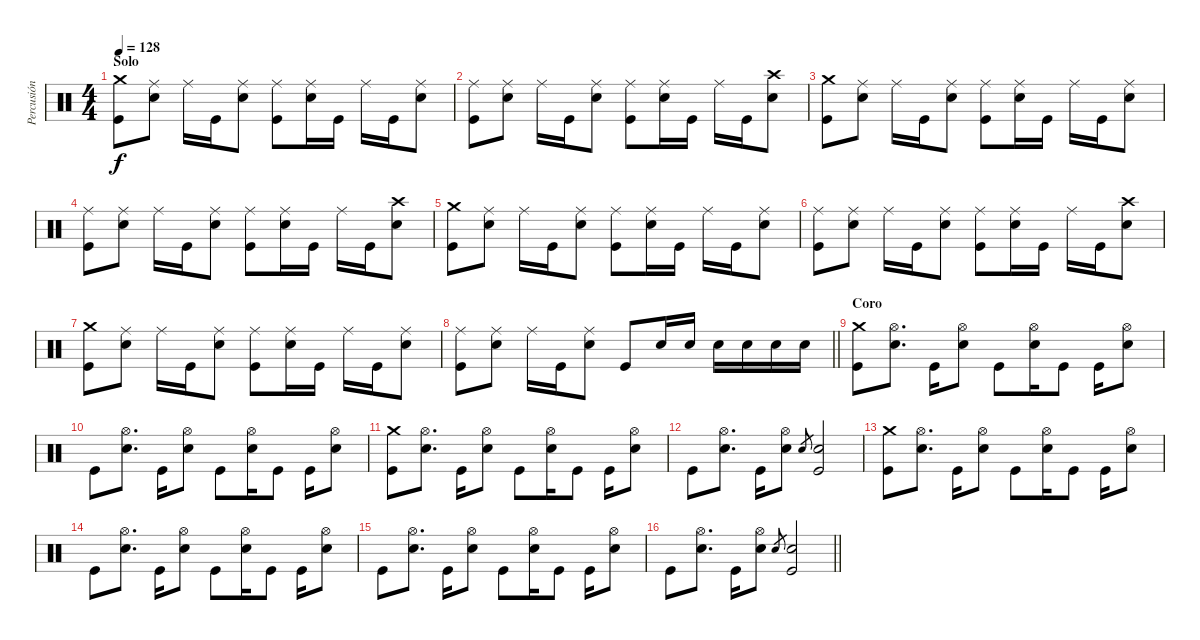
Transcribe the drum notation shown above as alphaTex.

\track ("Percusión" "Percusión") {instrument percussion}
\staff {score}
\articulation defaults
\ts (4 4)
\section ("" "Solo")
\tempo 128
\clef neutral
\ks c
("Crash medium (hit)" "Kick (hit)").8{dy f} ("Ride (middle)" "Snare (hit) 2").8 "Ride (middle)".16 "Kick (hit)".16 ("Ride (middle)" "Snare (hit) 2").8 ("Ride (middle)" "Kick (hit)").8 ("Ride (middle)" "Snare (hit) 2").16 "Kick (hit)".16 "Ride (middle)".16 "Kick (hit)".16 ("Ride (middle)" "Snare (hit) 2").8 |
("Ride (middle)" "Kick (hit)").8 ("Ride (middle)" "Snare (hit) 2").8 "Ride (middle)".16 "Kick (hit)".16 ("Ride (middle)" "Snare (hit) 2").8 ("Ride (middle)" "Kick (hit)").8 ("Ride (middle)" "Snare (hit) 2").16 "Kick (hit)".16 "Ride (middle)".16 "Kick (hit)".16 ("Crash high (hit)" "Snare (hit) 2").8 |
("Crash medium (hit)" "Kick (hit)").8 ("Ride (middle)" "Snare (hit) 2").8 "Ride (middle)".16 "Kick (hit)".16 ("Ride (middle)" "Snare (hit) 2").8 ("Ride (middle)" "Kick (hit)").8 ("Ride (middle)" "Snare (hit) 2").16 "Kick (hit)".16 "Ride (middle)".16 "Kick (hit)".16 ("Ride (middle)" "Snare (hit) 2").8 |
("Ride (middle)" "Kick (hit)").8 ("Ride (middle)" "Snare (hit) 2").8 "Ride (middle)".16 "Kick (hit)".16 ("Ride (middle)" "Snare (hit) 2").8 ("Ride (middle)" "Kick (hit)").8 ("Ride (middle)" "Snare (hit) 2").16 "Kick (hit)".16 "Ride (middle)".16 "Kick (hit)".16 ("Crash high (hit)" "Snare (hit) 2").8 |
("Crash medium (hit)" "Kick (hit)").8 ("Ride (middle)" "Snare (hit) 2").8 "Ride (middle)".16 "Kick (hit)".16 ("Ride (middle)" "Snare (hit) 2").8 ("Ride (middle)" "Kick (hit)").8 ("Ride (middle)" "Snare (hit) 2").16 "Kick (hit)".16 "Ride (middle)".16 "Kick (hit)".16 ("Ride (middle)" "Snare (hit) 2").8 |
("Ride (middle)" "Kick (hit)").8 ("Ride (middle)" "Snare (hit) 2").8 "Ride (middle)".16 "Kick (hit)".16 ("Ride (middle)" "Snare (hit) 2").8 ("Ride (middle)" "Kick (hit)").8 ("Ride (middle)" "Snare (hit) 2").16 "Kick (hit)".16 "Ride (middle)".16 "Kick (hit)".16 ("Crash high (hit)" "Snare (hit) 2").8 |
("Crash medium (hit)" "Kick (hit)").8 ("Ride (middle)" "Snare (hit) 2").8 "Ride (middle)".16 "Kick (hit)".16 ("Ride (middle)" "Snare (hit) 2").8 ("Ride (middle)" "Kick (hit)").8 ("Ride (middle)" "Snare (hit) 2").16 "Kick (hit)".16 "Ride (middle)".16 "Kick (hit)".16 ("Ride (middle)" "Snare (hit) 2").8 |
\barLineRight lightlight
("Ride (middle)" "Kick (hit)").8 ("Ride (middle)" "Snare (hit) 2").8 "Ride (middle)".16 "Kick (hit)".16 ("Ride (middle)" "Snare (hit) 2").8 "Kick (hit)".8 "Snare (hit) 2".16 "Snare (hit) 2".16 "Snare (hit) 2".16 "Snare (hit) 2".16 "Snare (hit) 2".16 "Snare (hit) 2".16 |
\section ("" "Coro")
("Crash medium (hit)" "Kick (hit)").8 ("Hi-Hat (open)" "Snare (hit) 2").8{d} "Kick (hit)".16 ("Hi-Hat (open)" "Snare (hit) 2").8 "Kick (hit)".8 ("Hi-Hat (open)" "Snare (hit) 2").16 "Kick (hit)".8 "Kick (hit)".16 ("Hi-Hat (open)" "Snare (hit) 2").8 |
"Kick (hit)".8 ("Hi-Hat (open)" "Snare (hit) 2").8{d} "Kick (hit)".16 ("Hi-Hat (open)" "Snare (hit) 2").8 "Kick (hit)".8 ("Hi-Hat (open)" "Snare (hit) 2").16 "Kick (hit)".8 "Kick (hit)".16 ("Hi-Hat (open)" "Snare (hit) 2").8 |
("Crash medium (hit)" "Kick (hit)").8 ("Hi-Hat (open)" "Snare (hit) 2").8{d} "Kick (hit)".16 ("Hi-Hat (open)" "Snare (hit) 2").8 "Kick (hit)".8 ("Hi-Hat (open)" "Snare (hit) 2").16 "Kick (hit)".8 "Kick (hit)".16 ("Hi-Hat (open)" "Snare (hit) 2").8 |
"Kick (hit)".8 ("Hi-Hat (open)" "Snare (hit) 2").8{d} "Kick (hit)".16 ("Hi-Hat (open)" "Snare (hit) 2").8 "Snare (hit) 2".8{gr} ("Snare (hit) 2" "Kick (hit)").2 |
("Crash medium (hit)" "Kick (hit)").8 ("Hi-Hat (open)" "Snare (hit) 2").8{d} "Kick (hit)".16 ("Hi-Hat (open)" "Snare (hit) 2").8 "Kick (hit)".8 ("Hi-Hat (open)" "Snare (hit) 2").16 "Kick (hit)".8 "Kick (hit)".16 ("Hi-Hat (open)" "Snare (hit) 2").8 |
"Kick (hit)".8 ("Hi-Hat (open)" "Snare (hit) 2").8{d} "Kick (hit)".16 ("Hi-Hat (open)" "Snare (hit) 2").8 "Kick (hit)".8 ("Hi-Hat (open)" "Snare (hit) 2").16 "Kick (hit)".8 "Kick (hit)".16 ("Hi-Hat (open)" "Snare (hit) 2").8 |
"Kick (hit)".8 ("Hi-Hat (open)" "Snare (hit) 2").8{d} "Kick (hit)".16 ("Hi-Hat (open)" "Snare (hit) 2").8 "Kick (hit)".8 ("Hi-Hat (open)" "Snare (hit) 2").16 "Kick (hit)".8 "Kick (hit)".16 ("Hi-Hat (open)" "Snare (hit) 2").8 |
\barLineRight lightlight "Kick (hit)".8
("Hi-Hat (open)" "Snare (hit) 2").8{d} "Kick (hit)".16 ("Hi-Hat (open)" "Snare (hit) 2").8 "Snare (hit) 2".8{gr} ("Snare (hit) 2" "Kick (hit)").2
